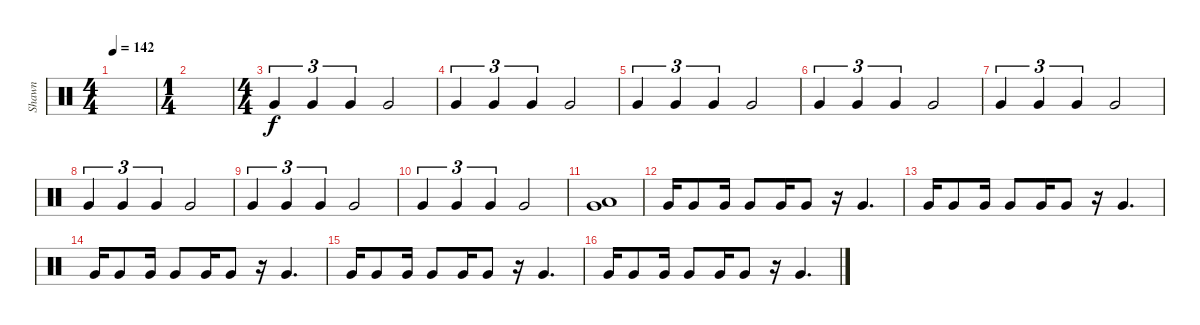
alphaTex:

\track ("Shawn" "Shawn") {instrument percussion}
\staff {score}
\articulation defaults
\ts (4 4)
\tempo 142
\clef neutral
\ks c
|
\ts (1 4)
|
\ts (4 4)
"Very Low Tom (hit)".4{tu (3 2)} "Very Low Tom (hit)".4{tu (3 2)} "Very Low Tom (hit)".4{tu (3 2)} "Very Low Tom (hit)".2 |
"Very Low Tom (hit)".4{tu (3 2)} "Very Low Tom (hit)".4{tu (3 2)} "Very Low Tom (hit)".4{tu (3 2)} "Very Low Tom (hit)".2 |
"Very Low Tom (hit)".4{tu (3 2)} "Very Low Tom (hit)".4{tu (3 2)} "Very Low Tom (hit)".4{tu (3 2)} "Very Low Tom (hit)".2 |
"Very Low Tom (hit)".4{tu (3 2)} "Very Low Tom (hit)".4{tu (3 2)} "Very Low Tom (hit)".4{tu (3 2)} "Very Low Tom (hit)".2 |
"Very Low Tom (hit)".4{tu (3 2)} "Very Low Tom (hit)".4{tu (3 2)} "Very Low Tom (hit)".4{tu (3 2)} "Very Low Tom (hit)".2 |
"Very Low Tom (hit)".4{tu (3 2)} "Very Low Tom (hit)".4{tu (3 2)} "Very Low Tom (hit)".4{tu (3 2)} "Very Low Tom (hit)".2 |
"Very Low Tom (hit)".4{tu (3 2)} "Very Low Tom (hit)".4{tu (3 2)} "Very Low Tom (hit)".4{tu (3 2)} "Very Low Tom (hit)".2 |
"Very Low Tom (hit)".4{tu (3 2)} "Very Low Tom (hit)".4{tu (3 2)} "Very Low Tom (hit)".4{tu (3 2)} "Very Low Tom (hit)".2 |
("Very Low Tom (hit)" "Low Floor Tom (hit)").1 |
"Very Low Tom (hit)".16 "Very Low Tom (hit)".8 "Very Low Tom (hit)".16 "Very Low Tom (hit)".8 "Very Low Tom (hit)".16 "Very Low Tom (hit)".8 r.16 "Very Low Tom (hit)".4{d} |
"Very Low Tom (hit)".16 "Very Low Tom (hit)".8 "Very Low Tom (hit)".16 "Very Low Tom (hit)".8 "Very Low Tom (hit)".16 "Very Low Tom (hit)".8 r.16 "Very Low Tom (hit)".4{d} |
"Very Low Tom (hit)".16 "Very Low Tom (hit)".8 "Very Low Tom (hit)".16 "Very Low Tom (hit)".8 "Very Low Tom (hit)".16 "Very Low Tom (hit)".8 r.16 "Very Low Tom (hit)".4{d} |
"Very Low Tom (hit)".16 "Very Low Tom (hit)".8 "Very Low Tom (hit)".16 "Very Low Tom (hit)".8 "Very Low Tom (hit)".16 "Very Low Tom (hit)".8 r.16 "Very Low Tom (hit)".4{d} |
"Very Low Tom (hit)".16 "Very Low Tom (hit)".8 "Very Low Tom (hit)".16 "Very Low Tom (hit)".8 "Very Low Tom (hit)".16 "Very Low Tom (hit)".8 r.16 "Very Low Tom (hit)".4{d}
